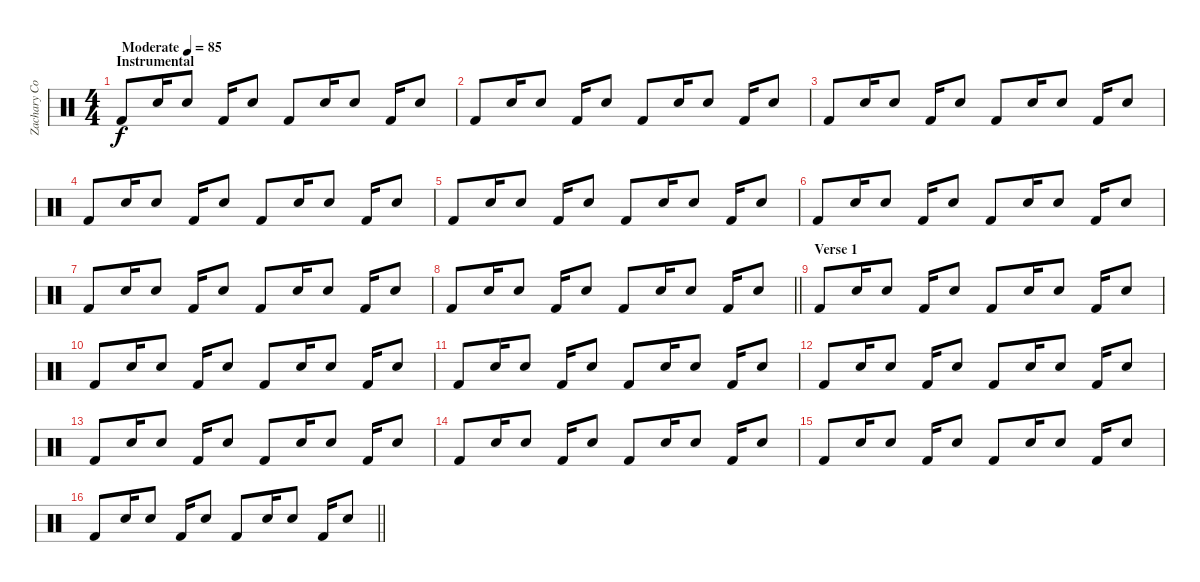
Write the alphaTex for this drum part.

\track ("Zachary Cole Smith" "Zachary Co") {instrument percussion}
\staff {score}
\articulation defaults
\ts (4 4)
\section ("" "Instrumental")
\tempo (85 "Moderate")
\clef neutral
\ks c "Kick (hit) 2".8{dy f} "Electric Snare (hit)".16 "Electric Snare (hit)".8 "Kick (hit) 2".16 "Electric Snare (hit)".8 "Kick (hit) 2".8 "Electric Snare (hit)".16 "Electric Snare (hit)".8 "Kick (hit) 2".16 "Electric Snare (hit)".8
|
"Kick (hit) 2".8 "Electric Snare (hit)".16 "Electric Snare (hit)".8 "Kick (hit) 2".16 "Electric Snare (hit)".8 "Kick (hit) 2".8 "Electric Snare (hit)".16 "Electric Snare (hit)".8 "Kick (hit) 2".16 "Electric Snare (hit)".8 |
"Kick (hit) 2".8 "Electric Snare (hit)".16 "Electric Snare (hit)".8 "Kick (hit) 2".16 "Electric Snare (hit)".8 "Kick (hit) 2".8 "Electric Snare (hit)".16 "Electric Snare (hit)".8 "Kick (hit) 2".16 "Electric Snare (hit)".8 |
"Kick (hit) 2".8 "Electric Snare (hit)".16 "Electric Snare (hit)".8 "Kick (hit) 2".16 "Electric Snare (hit)".8 "Kick (hit) 2".8 "Electric Snare (hit)".16 "Electric Snare (hit)".8 "Kick (hit) 2".16 "Electric Snare (hit)".8 |
"Kick (hit) 2".8 "Electric Snare (hit)".16 "Electric Snare (hit)".8 "Kick (hit) 2".16 "Electric Snare (hit)".8 "Kick (hit) 2".8 "Electric Snare (hit)".16 "Electric Snare (hit)".8 "Kick (hit) 2".16 "Electric Snare (hit)".8 |
"Kick (hit) 2".8 "Electric Snare (hit)".16 "Electric Snare (hit)".8 "Kick (hit) 2".16 "Electric Snare (hit)".8 "Kick (hit) 2".8 "Electric Snare (hit)".16 "Electric Snare (hit)".8 "Kick (hit) 2".16 "Electric Snare (hit)".8 |
"Kick (hit) 2".8 "Electric Snare (hit)".16 "Electric Snare (hit)".8 "Kick (hit) 2".16 "Electric Snare (hit)".8 "Kick (hit) 2".8 "Electric Snare (hit)".16 "Electric Snare (hit)".8 "Kick (hit) 2".16 "Electric Snare (hit)".8 |
\barLineRight lightlight "Kick (hit) 2".8 "Electric Snare (hit)".16 "Electric Snare (hit)".8 "Kick (hit) 2".16 "Electric Snare (hit)".8 "Kick (hit) 2".8 "Electric Snare (hit)".16 "Electric Snare (hit)".8 "Kick (hit) 2".16 "Electric Snare (hit)".8
|
\section ("" "Verse 1")
"Kick (hit) 2".8 "Electric Snare (hit)".16 "Electric Snare (hit)".8 "Kick (hit) 2".16 "Electric Snare (hit)".8 "Kick (hit) 2".8 "Electric Snare (hit)".16 "Electric Snare (hit)".8 "Kick (hit) 2".16 "Electric Snare (hit)".8 |
"Kick (hit) 2".8 "Electric Snare (hit)".16 "Electric Snare (hit)".8 "Kick (hit) 2".16 "Electric Snare (hit)".8 "Kick (hit) 2".8 "Electric Snare (hit)".16 "Electric Snare (hit)".8 "Kick (hit) 2".16 "Electric Snare (hit)".8 |
"Kick (hit) 2".8 "Electric Snare (hit)".16 "Electric Snare (hit)".8 "Kick (hit) 2".16 "Electric Snare (hit)".8 "Kick (hit) 2".8 "Electric Snare (hit)".16 "Electric Snare (hit)".8 "Kick (hit) 2".16 "Electric Snare (hit)".8 |
"Kick (hit) 2".8 "Electric Snare (hit)".16 "Electric Snare (hit)".8 "Kick (hit) 2".16 "Electric Snare (hit)".8 "Kick (hit) 2".8 "Electric Snare (hit)".16 "Electric Snare (hit)".8 "Kick (hit) 2".16 "Electric Snare (hit)".8 |
"Kick (hit) 2".8 "Electric Snare (hit)".16 "Electric Snare (hit)".8 "Kick (hit) 2".16 "Electric Snare (hit)".8 "Kick (hit) 2".8 "Electric Snare (hit)".16 "Electric Snare (hit)".8 "Kick (hit) 2".16 "Electric Snare (hit)".8 |
"Kick (hit) 2".8 "Electric Snare (hit)".16 "Electric Snare (hit)".8 "Kick (hit) 2".16 "Electric Snare (hit)".8 "Kick (hit) 2".8 "Electric Snare (hit)".16 "Electric Snare (hit)".8 "Kick (hit) 2".16 "Electric Snare (hit)".8 |
"Kick (hit) 2".8 "Electric Snare (hit)".16 "Electric Snare (hit)".8 "Kick (hit) 2".16 "Electric Snare (hit)".8 "Kick (hit) 2".8 "Electric Snare (hit)".16 "Electric Snare (hit)".8 "Kick (hit) 2".16 "Electric Snare (hit)".8 |
\barLineRight lightlight "Kick (hit) 2".8 "Electric Snare (hit)".16 "Electric Snare (hit)".8 "Kick (hit) 2".16 "Electric Snare (hit)".8 "Kick (hit) 2".8 "Electric Snare (hit)".16 "Electric Snare (hit)".8 "Kick (hit) 2".16 "Electric Snare (hit)".8
